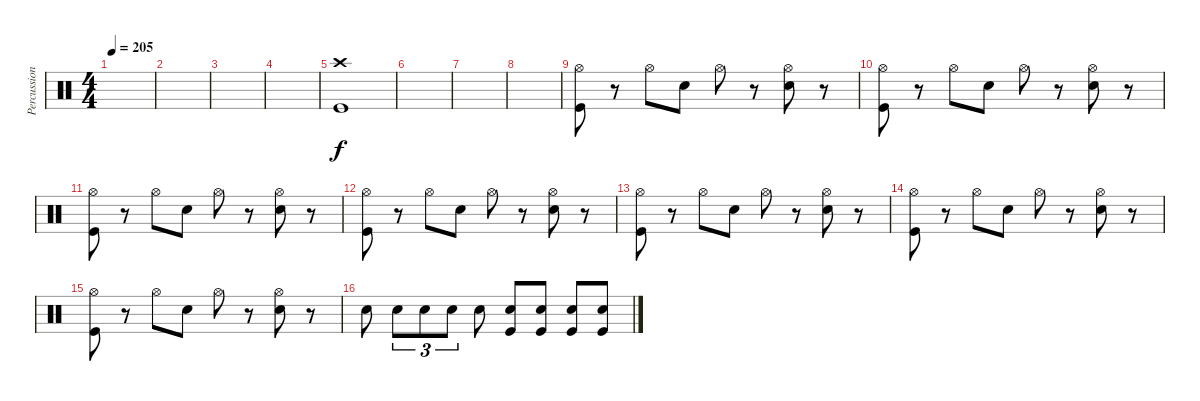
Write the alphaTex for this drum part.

\track ("Percussion" "Percussion") {instrument percussion}
\staff {score}
\articulation defaults
\ts (4 4)
\tempo 205
\clef neutral
\ks c
|
|
|
|
("Crash high (hit)" "Kick (hit)").1 |
|
|
|
("Hi-Hat (open)" "Kick (hit)").8 r.8 "Hi-Hat (open)".8 "Snare (hit) 2".8 "Hi-Hat (open)".8 r.8 ("Hi-Hat (open)" "Snare (hit) 2").8 r.8 |
("Hi-Hat (open)" "Kick (hit)").8 r.8 "Hi-Hat (open)".8 "Snare (hit) 2".8 "Hi-Hat (open)".8 r.8 ("Hi-Hat (open)" "Snare (hit) 2").8 r.8 |
("Hi-Hat (open)" "Kick (hit)").8 r.8 "Hi-Hat (open)".8 "Snare (hit) 2".8 "Hi-Hat (open)".8 r.8 ("Hi-Hat (open)" "Snare (hit) 2").8 r.8 |
("Hi-Hat (open)" "Kick (hit)").8 r.8 "Hi-Hat (open)".8 "Snare (hit) 2".8 "Hi-Hat (open)".8 r.8 ("Hi-Hat (open)" "Snare (hit) 2").8 r.8 |
("Hi-Hat (open)" "Kick (hit)").8 r.8 "Hi-Hat (open)".8 "Snare (hit) 2".8 "Hi-Hat (open)".8 r.8 ("Hi-Hat (open)" "Snare (hit) 2").8 r.8 |
("Hi-Hat (open)" "Kick (hit)").8 r.8 "Hi-Hat (open)".8 "Snare (hit) 2".8 "Hi-Hat (open)".8 r.8 ("Hi-Hat (open)" "Snare (hit) 2").8 r.8 |
("Hi-Hat (open)" "Kick (hit)").8 r.8 "Hi-Hat (open)".8 "Snare (hit) 2".8 "Hi-Hat (open)".8 r.8 ("Hi-Hat (open)" "Snare (hit) 2").8 r.8 |
"Snare (hit) 2".8 "Snare (hit) 2".8{tu (3 2)} "Snare (hit) 2".8{tu (3 2)} "Snare (hit) 2".8{tu (3 2)} "Snare (hit) 2".8 ("Snare (hit) 2" "Kick (hit)").8 ("Snare (hit) 2" "Kick (hit)").8 ("Snare (hit) 2" "Kick (hit)").8 ("Snare (hit) 2" "Kick (hit)").8
